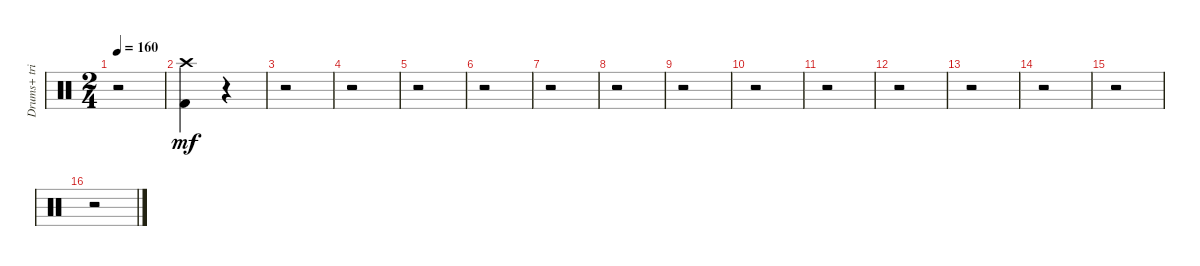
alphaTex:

\track ("Drums+ triangle" "Drums+ tri") {instrument percussion}
\staff {score}
\articulation defaults
\ts (2 4)
\tempo 160
\clef neutral
\ks c
r.2{dy mf} |
("Kick (hit) 2" "Crash high (hit)").4 r.4 |
r.2 |
r.2 |
r.2 |
r.2 |
r.2 |
r.2 |
r.2 |
r.2 |
r.2 |
r.2 |
r.2 |
r.2 |
r.2 |
r.2
